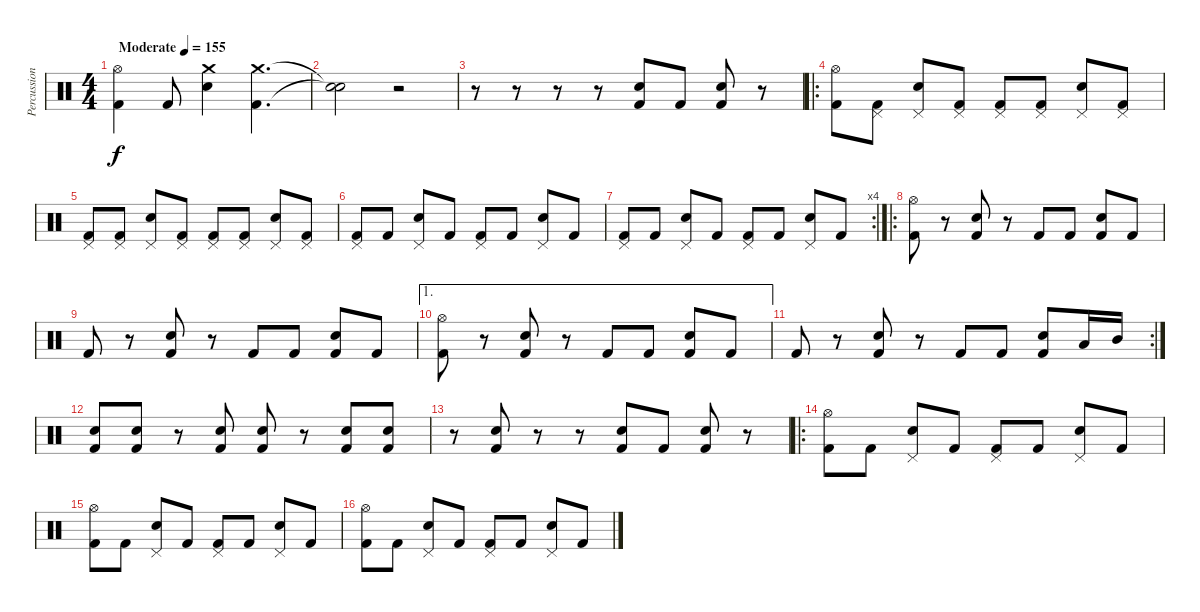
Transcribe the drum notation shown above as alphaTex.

\track ("Percussion" "Percussion") {instrument percussion}
\staff {score}
\articulation defaults
\ts (4 4)
\tempo (155 "Moderate")
\clef neutral
\ks c
("Hi-Hat (open)" "Kick (hit) 2").4{dy f} "Kick (hit) 2".8 ("Crash medium (hit)" "Electric Snare (hit)").4 ("Crash medium (hit)" "Kick (hit) 2").4{d} |
("Snare (hit)"{t} "Snare (hit)"{t}).2 r.2 |
r.8 r.8 r.8 r.8 ("Electric Snare (hit)" "Kick (hit) 2").8 "Kick (hit) 2".8 ("Electric Snare (hit)" "Kick (hit) 2").8 r.8 |
\ro
("Hi-Hat (open)" "Kick (hit) 2").8 ("Pedal Hi-Hat (hit)" "Kick (hit) 2").8 ("Pedal Hi-Hat (hit)" "Electric Snare (hit)").8 ("Pedal Hi-Hat (hit)" "Kick (hit) 2").8 ("Pedal Hi-Hat (hit)" "Kick (hit) 2").8 ("Pedal Hi-Hat (hit)" "Kick (hit) 2").8 ("Pedal Hi-Hat (hit)" "Electric Snare (hit)").8 ("Pedal Hi-Hat (hit)" "Kick (hit) 2").8 |
("Pedal Hi-Hat (hit)" "Kick (hit) 2").8 ("Pedal Hi-Hat (hit)" "Kick (hit) 2").8 ("Pedal Hi-Hat (hit)" "Electric Snare (hit)").8 ("Pedal Hi-Hat (hit)" "Kick (hit) 2").8 ("Pedal Hi-Hat (hit)" "Kick (hit) 2").8 ("Pedal Hi-Hat (hit)" "Kick (hit) 2").8 ("Pedal Hi-Hat (hit)" "Electric Snare (hit)").8 ("Pedal Hi-Hat (hit)" "Kick (hit) 2").8 |
("Pedal Hi-Hat (hit)" "Kick (hit) 2").8 "Kick (hit) 2".8 ("Pedal Hi-Hat (hit)" "Electric Snare (hit)").8 "Kick (hit) 2".8 ("Pedal Hi-Hat (hit)" "Kick (hit) 2").8 "Kick (hit) 2".8 ("Pedal Hi-Hat (hit)" "Electric Snare (hit)").8 "Kick (hit) 2".8 |
\rc 4
("Pedal Hi-Hat (hit)" "Kick (hit) 2").8 "Kick (hit) 2".8 ("Pedal Hi-Hat (hit)" "Electric Snare (hit)").8 "Kick (hit) 2".8 ("Pedal Hi-Hat (hit)" "Kick (hit) 2").8 "Kick (hit) 2".8 ("Pedal Hi-Hat (hit)" "Electric Snare (hit)").8 "Kick (hit) 2".8 |
\ro
("Hi-Hat (open)" "Kick (hit) 2").8 r.8 ("Electric Snare (hit)" "Kick (hit) 2").8 r.8 "Kick (hit) 2".8 "Kick (hit) 2".8 ("Electric Snare (hit)" "Kick (hit) 2").8 "Kick (hit) 2".8 |
"Kick (hit) 2".8 r.8 ("Electric Snare (hit)" "Kick (hit) 2").8 r.8 "Kick (hit) 2".8 "Kick (hit) 2".8 ("Electric Snare (hit)" "Kick (hit) 2").8 "Kick (hit) 2".8 |
\ae 1
("Hi-Hat (open)" "Kick (hit) 2").8 r.8 ("Electric Snare (hit)" "Kick (hit) 2").8 r.8 "Kick (hit) 2".8 "Kick (hit) 2".8 ("Electric Snare (hit)" "Kick (hit) 2").8 "Kick (hit) 2".8 |
\rc 2 "Kick (hit) 2".8
r.8 ("Electric Snare (hit)" "Kick (hit) 2").8 r.8 "Kick (hit) 2".8 "Kick (hit) 2".8 ("Electric Snare (hit)" "Kick (hit) 2").8 "Low Tom (hit)".16 "Mid Tom (hit)".16 |
("Electric Snare (hit)" "Kick (hit) 2").8 ("Electric Snare (hit)" "Kick (hit) 2").8 r.8 ("Electric Snare (hit)" "Kick (hit) 2").8 ("Electric Snare (hit)" "Kick (hit) 2").8 r.8 ("Electric Snare (hit)" "Kick (hit) 2").8 ("Electric Snare (hit)" "Kick (hit) 2").8 |
r.8 ("Electric Snare (hit)" "Kick (hit) 2").8 r.8 r.8 ("Electric Snare (hit)" "Kick (hit) 2").8 "Kick (hit) 2".8 ("Electric Snare (hit)" "Kick (hit) 2").8 r.8 |
\ro
("Hi-Hat (open)" "Kick (hit) 2").8 "Kick (hit) 2".8 ("Pedal Hi-Hat (hit)" "Electric Snare (hit)").8 "Kick (hit) 2".8 ("Pedal Hi-Hat (hit)" "Kick (hit) 2").8 "Kick (hit) 2".8 ("Pedal Hi-Hat (hit)" "Electric Snare (hit)").8 "Kick (hit) 2".8 |
("Hi-Hat (open)" "Kick (hit) 2").8 "Kick (hit) 2".8 ("Pedal Hi-Hat (hit)" "Electric Snare (hit)").8 "Kick (hit) 2".8 ("Pedal Hi-Hat (hit)" "Kick (hit) 2").8 "Kick (hit) 2".8 ("Pedal Hi-Hat (hit)" "Electric Snare (hit)").8 "Kick (hit) 2".8 |
("Hi-Hat (open)" "Kick (hit) 2").8 "Kick (hit) 2".8 ("Pedal Hi-Hat (hit)" "Electric Snare (hit)").8 "Kick (hit) 2".8 ("Pedal Hi-Hat (hit)" "Kick (hit) 2").8 "Kick (hit) 2".8 ("Pedal Hi-Hat (hit)" "Electric Snare (hit)").8 "Kick (hit) 2".8
